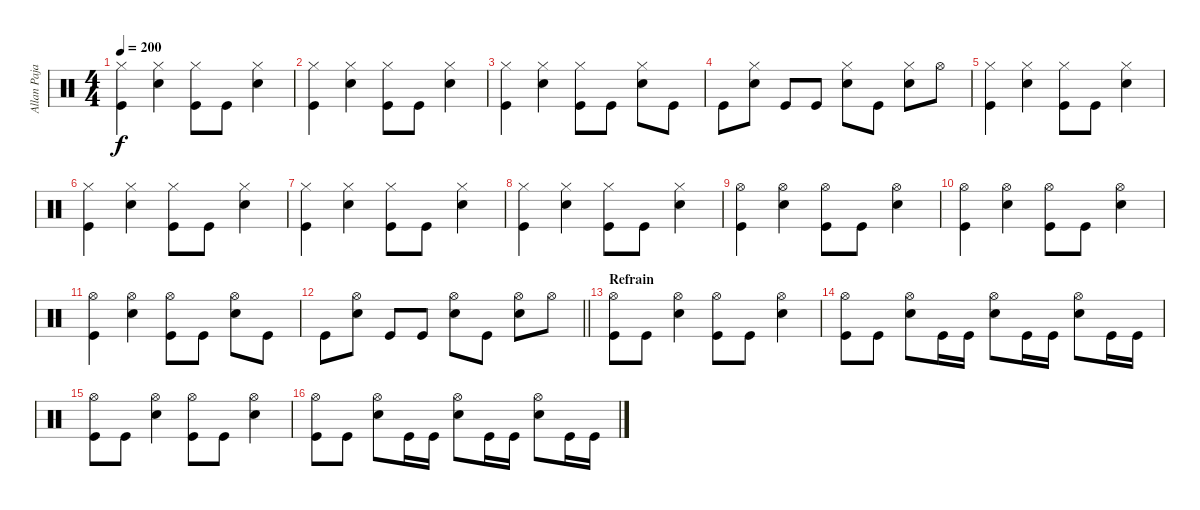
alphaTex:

\track ("Allan Pajarin (Drums)" "Allan Paja") {instrument percussion}
\staff {score}
\articulation defaults
\ts (4 4)
\tempo 200
\clef neutral
\ks c
("Hi-Hat (closed)" "Kick (hit)").4{dy f} ("Hi-Hat (closed)" "Electric Snare (hit)").4 ("Hi-Hat (closed)" "Kick (hit)").8 "Kick (hit)".8 ("Hi-Hat (closed)" "Electric Snare (hit)").4 |
("Hi-Hat (closed)" "Kick (hit)").4 ("Hi-Hat (closed)" "Electric Snare (hit)").4 ("Hi-Hat (closed)" "Kick (hit)").8 "Kick (hit)".8 ("Hi-Hat (closed)" "Electric Snare (hit)").4 |
("Hi-Hat (closed)" "Kick (hit)").4 ("Hi-Hat (closed)" "Electric Snare (hit)").4 ("Hi-Hat (closed)" "Kick (hit)").8 "Kick (hit)".8 ("Hi-Hat (closed)" "Electric Snare (hit)").8 "Kick (hit)".8 |
"Kick (hit)".8 ("Hi-Hat (closed)" "Electric Snare (hit)").8 "Kick (hit)".8 "Kick (hit)".8 ("Hi-Hat (closed)" "Electric Snare (hit)").8 "Kick (hit)".8 ("Hi-Hat (closed)" "Electric Snare (hit)").8 "Hi-Hat (open)".8 |
("Hi-Hat (closed)" "Kick (hit)").4 ("Hi-Hat (closed)" "Electric Snare (hit)").4 ("Hi-Hat (closed)" "Kick (hit)").8 "Kick (hit)".8 ("Hi-Hat (closed)" "Electric Snare (hit)").4 |
("Hi-Hat (closed)" "Kick (hit)").4 ("Hi-Hat (closed)" "Electric Snare (hit)").4 ("Hi-Hat (closed)" "Kick (hit)").8 "Kick (hit)".8 ("Hi-Hat (closed)" "Electric Snare (hit)").4 |
("Hi-Hat (closed)" "Kick (hit)").4 ("Hi-Hat (closed)" "Electric Snare (hit)").4 ("Hi-Hat (closed)" "Kick (hit)").8 "Kick (hit)".8 ("Hi-Hat (closed)" "Electric Snare (hit)").4 |
("Hi-Hat (closed)" "Kick (hit)").4 ("Hi-Hat (closed)" "Electric Snare (hit)").4 ("Hi-Hat (closed)" "Kick (hit)").8 "Kick (hit)".8 ("Hi-Hat (closed)" "Electric Snare (hit)").4 |
("Hi-Hat (open)" "Kick (hit)").4 ("Hi-Hat (open)" "Electric Snare (hit)").4 ("Hi-Hat (open)" "Kick (hit)").8 "Kick (hit)".8 ("Hi-Hat (open)" "Electric Snare (hit)").4 |
("Hi-Hat (open)" "Kick (hit)").4 ("Hi-Hat (open)" "Electric Snare (hit)").4 ("Hi-Hat (open)" "Kick (hit)").8 "Kick (hit)".8 ("Hi-Hat (open)" "Electric Snare (hit)").4 |
("Hi-Hat (open)" "Kick (hit)").4 ("Hi-Hat (open)" "Electric Snare (hit)").4 ("Hi-Hat (open)" "Kick (hit)").8 "Kick (hit)".8 ("Hi-Hat (open)" "Electric Snare (hit)").8 "Kick (hit)".8 |
\barLineRight lightlight "Kick (hit)".8
("Hi-Hat (open)" "Electric Snare (hit)").8 "Kick (hit)".8 "Kick (hit)".8 ("Hi-Hat (open)" "Electric Snare (hit)").8 "Kick (hit)".8 ("Hi-Hat (open)" "Electric Snare (hit)").8 "Hi-Hat (open)".8 |
\section ("" "Refrain")
("Kick (hit)" "Hi-Hat (open)").8 "Kick (hit)".8 ("Hi-Hat (open)" "Electric Snare (hit)").4 ("Hi-Hat (open)" "Kick (hit)").8 "Kick (hit)".8 ("Hi-Hat (open)" "Electric Snare (hit)").4 |
("Kick (hit)" "Hi-Hat (open)").8 "Kick (hit)".8 ("Hi-Hat (open)" "Electric Snare (hit)").8 "Kick (hit)".16 "Kick (hit)".16 ("Hi-Hat (open)" "Electric Snare (hit)").8 "Kick (hit)".16 "Kick (hit)".16 ("Hi-Hat (open)" "Electric Snare (hit)").8 "Kick (hit)".16 "Kick (hit)".16 |
("Kick (hit)" "Hi-Hat (open)").8 "Kick (hit)".8 ("Hi-Hat (open)" "Electric Snare (hit)").4 ("Hi-Hat (open)" "Kick (hit)").8 "Kick (hit)".8 ("Hi-Hat (open)" "Electric Snare (hit)").4 |
("Kick (hit)" "Hi-Hat (open)").8 "Kick (hit)".8 ("Hi-Hat (open)" "Electric Snare (hit)").8 "Kick (hit)".16 "Kick (hit)".16 ("Hi-Hat (open)" "Electric Snare (hit)").8 "Kick (hit)".16 "Kick (hit)".16 ("Hi-Hat (open)" "Electric Snare (hit)").8 "Kick (hit)".16 "Kick (hit)".16
